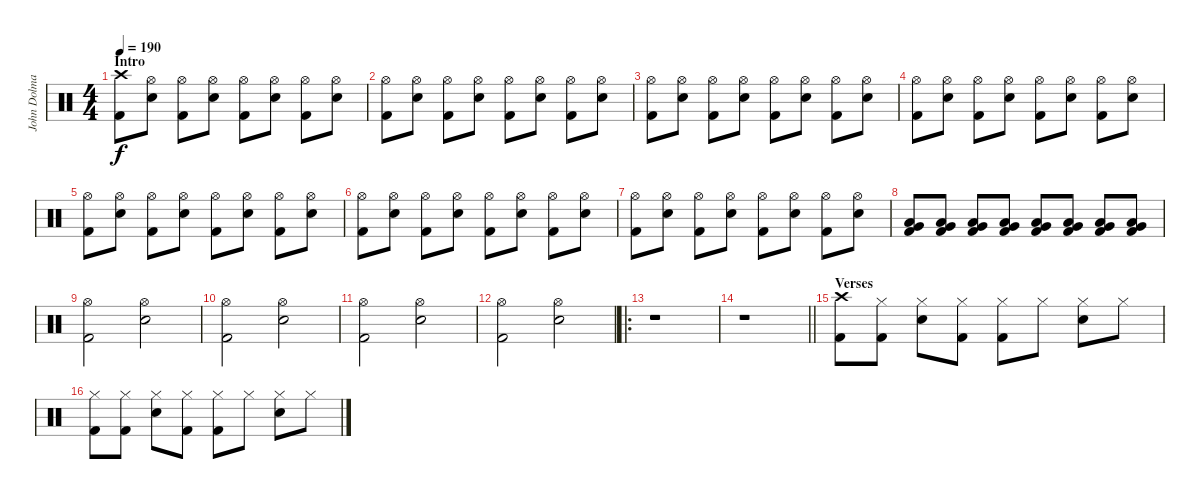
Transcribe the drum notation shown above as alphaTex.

\track ("John Dolmayan" "John Dolma") {instrument percussion}
\staff {score}
\articulation defaults
\ts (4 4)
\section ("" "Intro")
\tempo 190
\clef neutral
\ks c
("Crash high (hit)" "Kick (hit) 2").8{dy f} ("Hi-Hat (open)" "Electric Snare (hit)").8 ("Hi-Hat (open)" "Kick (hit) 2").8 ("Hi-Hat (open)" "Electric Snare (hit)").8 ("Hi-Hat (open)" "Kick (hit) 2").8 ("Hi-Hat (open)" "Electric Snare (hit)").8 ("Hi-Hat (open)" "Kick (hit) 2").8 ("Hi-Hat (open)" "Electric Snare (hit)").8 |
("Hi-Hat (open)" "Kick (hit) 2").8 ("Hi-Hat (open)" "Electric Snare (hit)").8 ("Hi-Hat (open)" "Kick (hit) 2").8 ("Hi-Hat (open)" "Electric Snare (hit)").8 ("Hi-Hat (open)" "Kick (hit) 2").8 ("Hi-Hat (open)" "Electric Snare (hit)").8 ("Hi-Hat (open)" "Kick (hit) 2").8 ("Hi-Hat (open)" "Electric Snare (hit)").8 |
("Hi-Hat (open)" "Kick (hit) 2").8 ("Hi-Hat (open)" "Electric Snare (hit)").8 ("Hi-Hat (open)" "Kick (hit) 2").8 ("Hi-Hat (open)" "Electric Snare (hit)").8 ("Hi-Hat (open)" "Kick (hit) 2").8 ("Hi-Hat (open)" "Electric Snare (hit)").8 ("Hi-Hat (open)" "Kick (hit) 2").8 ("Hi-Hat (open)" "Electric Snare (hit)").8 |
("Hi-Hat (open)" "Kick (hit) 2").8 ("Hi-Hat (open)" "Electric Snare (hit)").8 ("Hi-Hat (open)" "Kick (hit) 2").8 ("Hi-Hat (open)" "Electric Snare (hit)").8 ("Hi-Hat (open)" "Kick (hit) 2").8 ("Hi-Hat (open)" "Electric Snare (hit)").8 ("Hi-Hat (open)" "Kick (hit) 2").8 ("Hi-Hat (open)" "Electric Snare (hit)").8 |
("Hi-Hat (open)" "Kick (hit) 2").8 ("Hi-Hat (open)" "Electric Snare (hit)").8 ("Hi-Hat (open)" "Kick (hit) 2").8 ("Hi-Hat (open)" "Electric Snare (hit)").8 ("Hi-Hat (open)" "Kick (hit) 2").8 ("Hi-Hat (open)" "Electric Snare (hit)").8 ("Hi-Hat (open)" "Kick (hit) 2").8 ("Hi-Hat (open)" "Electric Snare (hit)").8 |
("Hi-Hat (open)" "Kick (hit) 2").8 ("Hi-Hat (open)" "Electric Snare (hit)").8 ("Hi-Hat (open)" "Kick (hit) 2").8 ("Hi-Hat (open)" "Electric Snare (hit)").8 ("Hi-Hat (open)" "Kick (hit) 2").8 ("Hi-Hat (open)" "Electric Snare (hit)").8 ("Hi-Hat (open)" "Kick (hit) 2").8 ("Hi-Hat (open)" "Electric Snare (hit)").8 |
("Hi-Hat (open)" "Kick (hit) 2").8 ("Hi-Hat (open)" "Electric Snare (hit)").8 ("Hi-Hat (open)" "Kick (hit) 2").8 ("Hi-Hat (open)" "Electric Snare (hit)").8 ("Hi-Hat (open)" "Kick (hit) 2").8 ("Hi-Hat (open)" "Electric Snare (hit)").8 ("Hi-Hat (open)" "Kick (hit) 2").8 ("Hi-Hat (open)" "Electric Snare (hit)").8 |
("Very Low Tom (hit)" "Low Tom (hit)" "Kick (hit) 2").8 ("Very Low Tom (hit)" "Low Tom (hit)" "Kick (hit) 2").8 ("Very Low Tom (hit)" "Low Tom (hit)" "Kick (hit) 2").8 ("Very Low Tom (hit)" "Low Tom (hit)" "Kick (hit) 2").8 ("Very Low Tom (hit)" "Low Tom (hit)" "Kick (hit) 2").8 ("Very Low Tom (hit)" "Low Tom (hit)" "Kick (hit) 2").8 ("Very Low Tom (hit)" "Low Tom (hit)" "Kick (hit) 2").8 ("Very Low Tom (hit)" "Low Tom (hit)" "Kick (hit) 2").8 |
("Hi-Hat (open)" "Kick (hit) 2").2 ("Hi-Hat (open)" "Electric Snare (hit)").2 |
("Hi-Hat (open)" "Kick (hit) 2").2 ("Hi-Hat (open)" "Electric Snare (hit)").2 |
("Hi-Hat (open)" "Kick (hit) 2").2 ("Hi-Hat (open)" "Electric Snare (hit)").2 |
("Hi-Hat (open)" "Kick (hit) 2").2 ("Hi-Hat (open)" "Electric Snare (hit)").2 |
\ro
r.1 |
\barLineRight lightlight
r.1 |
\section ("" "Verses")
("Crash high (hit)" "Kick (hit) 2").8 ("Hi-Hat (closed)" "Kick (hit) 2").8 ("Hi-Hat (closed)" "Electric Snare (hit)").8 ("Hi-Hat (closed)" "Kick (hit) 2").8 ("Hi-Hat (closed)" "Kick (hit) 2").8 "Hi-Hat (closed)".8 ("Hi-Hat (closed)" "Electric Snare (hit)").8 "Hi-Hat (closed)".8 |
("Hi-Hat (closed)" "Kick (hit) 2").8 ("Hi-Hat (closed)" "Kick (hit) 2").8 ("Hi-Hat (closed)" "Electric Snare (hit)").8 ("Hi-Hat (closed)" "Kick (hit) 2").8 ("Hi-Hat (closed)" "Kick (hit) 2").8 "Hi-Hat (closed)".8 ("Hi-Hat (closed)" "Electric Snare (hit)").8 "Hi-Hat (closed)".8
